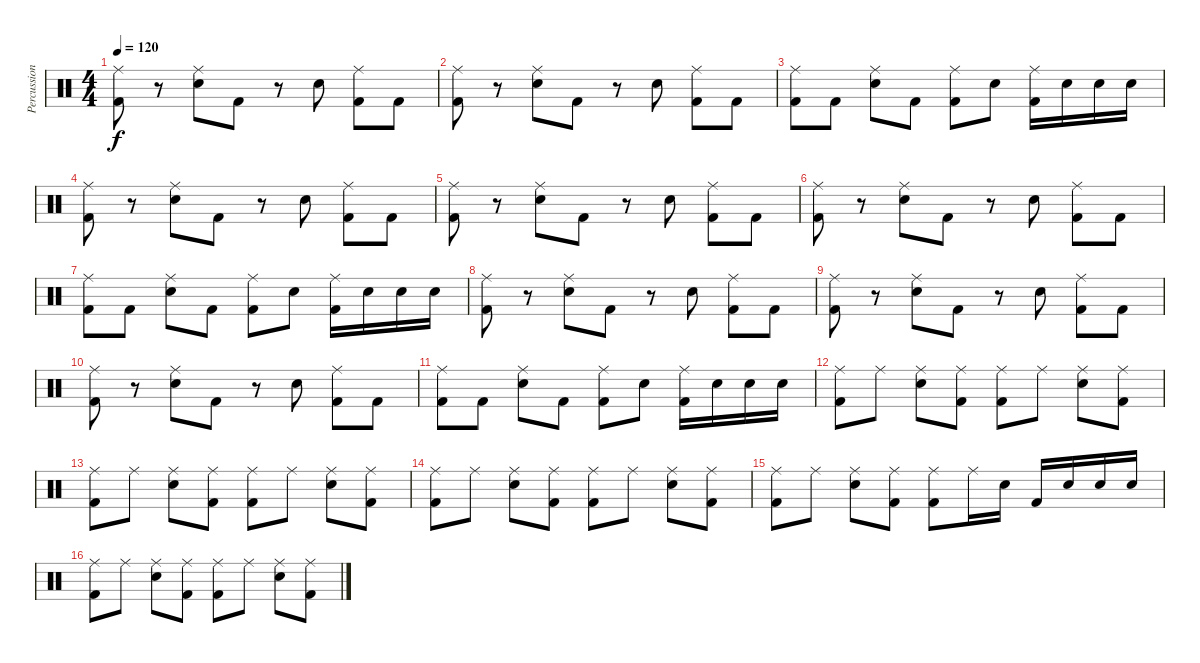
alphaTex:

\track ("Percussion" "Percussion") {instrument percussion}
\staff {score}
\articulation defaults
\ts (4 4)
\tempo 120
\clef neutral
\ks c
("Kick (hit) 2" "Ride (middle)").8{dy f} r.8 ("Snare (hit) 2" "Ride (middle)").8 "Kick (hit) 2".8 r.8 "Snare (hit) 2".8 ("Kick (hit) 2" "Ride (middle)").8 "Kick (hit) 2".8 |
("Kick (hit) 2" "Ride (middle)").8 r.8 ("Snare (hit) 2" "Ride (middle)").8 "Kick (hit) 2".8 r.8 "Snare (hit) 2".8 ("Kick (hit) 2" "Ride (middle)").8 "Kick (hit) 2".8 |
("Kick (hit) 2" "Ride (middle)").8 "Kick (hit) 2".8 ("Snare (hit) 2" "Ride (middle)").8 "Kick (hit) 2".8 ("Kick (hit) 2" "Ride (middle)").8 "Snare (hit) 2".8 ("Kick (hit) 2" "Ride (middle)").16 "Snare (hit) 2".16 "Snare (hit) 2".16 "Snare (hit) 2".16 |
("Kick (hit) 2" "Ride (middle)").8 r.8 ("Snare (hit) 2" "Ride (middle)").8 "Kick (hit) 2".8 r.8 "Snare (hit) 2".8 ("Kick (hit) 2" "Ride (middle)").8 "Kick (hit) 2".8 |
("Kick (hit) 2" "Ride (middle)").8 r.8 ("Snare (hit) 2" "Ride (middle)").8 "Kick (hit) 2".8 r.8 "Snare (hit) 2".8 ("Kick (hit) 2" "Ride (middle)").8 "Kick (hit) 2".8 |
("Kick (hit) 2" "Ride (middle)").8 r.8 ("Snare (hit) 2" "Ride (middle)").8 "Kick (hit) 2".8 r.8 "Snare (hit) 2".8 ("Kick (hit) 2" "Ride (middle)").8 "Kick (hit) 2".8 |
("Kick (hit) 2" "Ride (middle)").8 "Kick (hit) 2".8 ("Snare (hit) 2" "Ride (middle)").8 "Kick (hit) 2".8 ("Kick (hit) 2" "Ride (middle)").8 "Snare (hit) 2".8 ("Kick (hit) 2" "Ride (middle)").16 "Snare (hit) 2".16 "Snare (hit) 2".16 "Snare (hit) 2".16 |
("Kick (hit) 2" "Ride (middle)").8 r.8 ("Snare (hit) 2" "Ride (middle)").8 "Kick (hit) 2".8 r.8 "Snare (hit) 2".8 ("Kick (hit) 2" "Ride (middle)").8 "Kick (hit) 2".8 |
("Kick (hit) 2" "Ride (middle)").8 r.8 ("Snare (hit) 2" "Ride (middle)").8 "Kick (hit) 2".8 r.8 "Snare (hit) 2".8 ("Kick (hit) 2" "Ride (middle)").8 "Kick (hit) 2".8 |
("Kick (hit) 2" "Ride (middle)").8 r.8 ("Snare (hit) 2" "Ride (middle)").8 "Kick (hit) 2".8 r.8 "Snare (hit) 2".8 ("Kick (hit) 2" "Ride (middle)").8 "Kick (hit) 2".8 |
("Kick (hit) 2" "Ride (middle)").8 "Kick (hit) 2".8 ("Snare (hit) 2" "Ride (middle)").8 "Kick (hit) 2".8 ("Kick (hit) 2" "Ride (middle)").8 "Snare (hit) 2".8 ("Kick (hit) 2" "Ride (middle)").16 "Snare (hit) 2".16 "Snare (hit) 2".16 "Snare (hit) 2".16 |
("Kick (hit) 2" "Ride (middle)").8 "Ride (middle)".8 ("Electric Snare (hit)" "Ride (middle)").8 ("Kick (hit) 2" "Ride (middle)").8 ("Kick (hit) 2" "Ride (middle)").8 "Ride (middle)".8 ("Electric Snare (hit)" "Ride (middle)").8 ("Kick (hit) 2" "Ride (middle)").8 |
("Kick (hit) 2" "Ride (middle)").8 "Ride (middle)".8 ("Electric Snare (hit)" "Ride (middle)").8 ("Kick (hit) 2" "Ride (middle)").8 ("Kick (hit) 2" "Ride (middle)").8 "Ride (middle)".8 ("Electric Snare (hit)" "Ride (middle)").8 ("Kick (hit) 2" "Ride (middle)").8 |
("Kick (hit) 2" "Ride (middle)").8 "Ride (middle)".8 ("Electric Snare (hit)" "Ride (middle)").8 ("Kick (hit) 2" "Ride (middle)").8 ("Kick (hit) 2" "Ride (middle)").8 "Ride (middle)".8 ("Electric Snare (hit)" "Ride (middle)").8 ("Kick (hit) 2" "Ride (middle)").8 |
("Kick (hit) 2" "Ride (middle)").8 "Ride (middle)".8 ("Electric Snare (hit)" "Ride (middle)").8 ("Kick (hit) 2" "Ride (middle)").8 ("Kick (hit) 2" "Ride (middle)").8 "Ride (middle)".16 "Electric Snare (hit)".16 "Kick (hit) 2".16 "Electric Snare (hit)".16 "Electric Snare (hit)".16 "Electric Snare (hit)".16 |
("Kick (hit) 2" "Ride (middle)").8 "Ride (middle)".8 ("Electric Snare (hit)" "Ride (middle)").8 ("Kick (hit) 2" "Ride (middle)").8 ("Kick (hit) 2" "Ride (middle)").8 "Ride (middle)".8 ("Electric Snare (hit)" "Ride (middle)").8 ("Kick (hit) 2" "Ride (middle)").8
